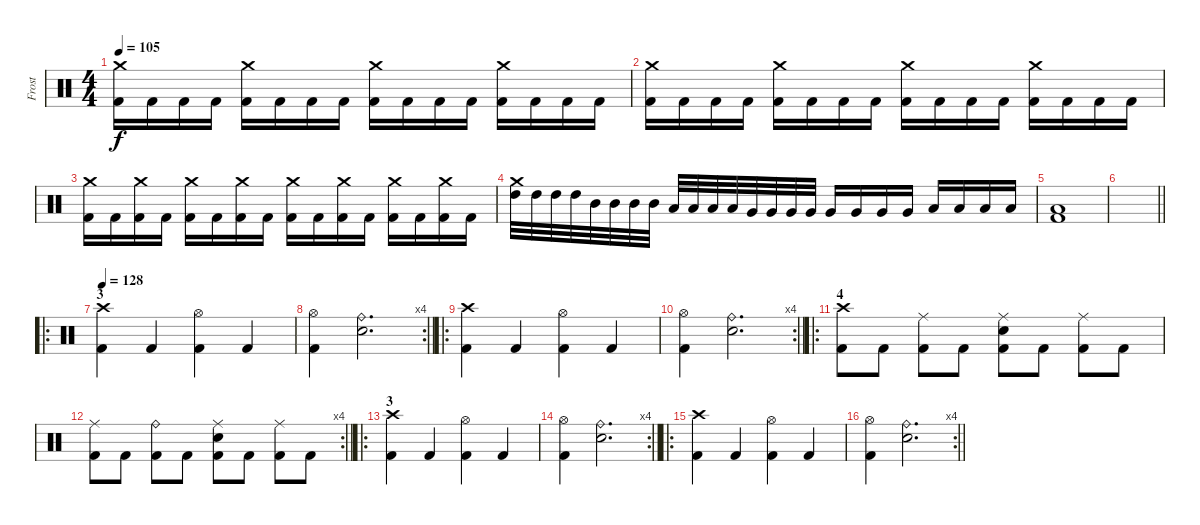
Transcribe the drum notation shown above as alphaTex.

\track ("Frost" "Frost") {instrument percussion}
\staff {score}
\articulation defaults
\ts (4 4)
\tempo 105
\clef neutral
\ks c
("Crash medium (hit)" "Kick (hit) 2").16{dy f} "Kick (hit) 2".16 "Kick (hit) 2".16 "Kick (hit) 2".16 ("Crash medium (hit)" "Kick (hit) 2").16 "Kick (hit) 2".16 "Kick (hit) 2".16 "Kick (hit) 2".16 ("Crash medium (hit)" "Kick (hit) 2").16 "Kick (hit) 2".16 "Kick (hit) 2".16 "Kick (hit) 2".16 ("Crash medium (hit)" "Kick (hit) 2").16 "Kick (hit) 2".16 "Kick (hit) 2".16 "Kick (hit) 2".16 |
("Crash medium (hit)" "Kick (hit) 2").16 "Kick (hit) 2".16 "Kick (hit) 2".16 "Kick (hit) 2".16 ("Crash medium (hit)" "Kick (hit) 2").16 "Kick (hit) 2".16 "Kick (hit) 2".16 "Kick (hit) 2".16 ("Crash medium (hit)" "Kick (hit) 2").16 "Kick (hit) 2".16 "Kick (hit) 2".16 "Kick (hit) 2".16 ("Crash medium (hit)" "Kick (hit) 2").16 "Kick (hit) 2".16 "Kick (hit) 2".16 "Kick (hit) 2".16 |
("Crash medium (hit)" "Kick (hit) 2").16 "Kick (hit) 2".16 ("Crash medium (hit)" "Kick (hit) 2").16 "Kick (hit) 2".16 ("Crash medium (hit)" "Kick (hit) 2").16 "Kick (hit) 2".16 ("Crash medium (hit)" "Kick (hit) 2").16 "Kick (hit) 2".16 ("Crash medium (hit)" "Kick (hit) 2").16 "Kick (hit) 2".16 ("Crash medium (hit)" "Kick (hit) 2").16 "Kick (hit) 2".16 ("Crash medium (hit)" "Kick (hit) 2").16 "Kick (hit) 2".16 ("Crash medium (hit)" "Kick (hit) 2").16 "Kick (hit) 2".16 |
("Crash medium (hit)" "High Tom (hit)").32 "High Tom (hit)".32 "High Tom (hit)".32 "High Tom (hit)".32 "Mid Tom (hit)".32 "Mid Tom (hit)".32 "Mid Tom (hit)".32 "Mid Tom (hit)".32 "Low Tom (hit)".32 "Low Tom (hit)".32 "Low Tom (hit)".32 "Low Tom (hit)".32 "Very Low Tom (hit)".32 "Very Low Tom (hit)".32 "Very Low Tom (hit)".32 "Very Low Tom (hit)".32 "Very Low Tom (hit)".16 "Very Low Tom (hit)".16 "Very Low Tom (hit)".16 "Very Low Tom (hit)".16 "Low Floor Tom (hit)".16 "Low Floor Tom (hit)".16 "Low Floor Tom (hit)".16 "Low Floor Tom (hit)".16 |
("Low Floor Tom (hit)" "Kick (hit) 2").1 |
\barLineRight lightlight
|
\ro
\section ("" "3")
\tempo 128
("Crash high (hit)" "Kick (hit) 2").4 "Kick (hit) 2".4 ("Hi-Hat (open)" "Kick (hit) 2").4 "Kick (hit) 2".4 |
\rc 4
\barLineRight lightlight
("Hi-Hat (open)" "Kick (hit) 2").4 ("Ride (bell)" "Electric Snare (hit)").2{d} |
\ro
("Crash high (hit)" "Kick (hit) 2").4 "Kick (hit) 2".4 ("Hi-Hat (open)" "Kick (hit) 2").4 "Kick (hit) 2".4 |
\rc 4
\barLineRight lightlight
("Hi-Hat (open)" "Kick (hit) 2").4 ("Ride (bell)" "Electric Snare (hit)").2{d} |
\ro
\section ("" "4")
("Crash high (hit)" "Kick (hit) 2").8 "Kick (hit) 2".8 ("Ride (middle)" "Kick (hit) 2").8 "Kick (hit) 2".8 ("Ride (middle)" "Electric Snare (hit)" "Kick (hit) 2").8 "Kick (hit) 2".8 ("Ride (middle)" "Kick (hit) 2").8 "Kick (hit) 2".8 |
\rc 4
\barLineRight lightlight
("Ride (middle)" "Kick (hit) 2").8 "Kick (hit) 2".8 ("Ride (bell)" "Kick (hit) 2").8 "Kick (hit) 2".8 ("Ride (middle)" "Electric Snare (hit)" "Kick (hit) 2").8 "Kick (hit) 2".8 ("Ride (middle)" "Kick (hit) 2").8 "Kick (hit) 2".8 |
\ro
\section ("" "3")
("Crash high (hit)" "Kick (hit) 2").4 "Kick (hit) 2".4 ("Hi-Hat (open)" "Kick (hit) 2").4 "Kick (hit) 2".4 |
\rc 4
\barLineRight lightlight
("Hi-Hat (open)" "Kick (hit) 2").4 ("Ride (bell)" "Electric Snare (hit)").2{d} |
\ro
("Crash high (hit)" "Kick (hit) 2").4 "Kick (hit) 2".4 ("Hi-Hat (open)" "Kick (hit) 2").4 "Kick (hit) 2".4 |
\rc 4
\barLineRight lightlight
("Hi-Hat (open)" "Kick (hit) 2").4 ("Ride (bell)" "Electric Snare (hit)").2{d}
